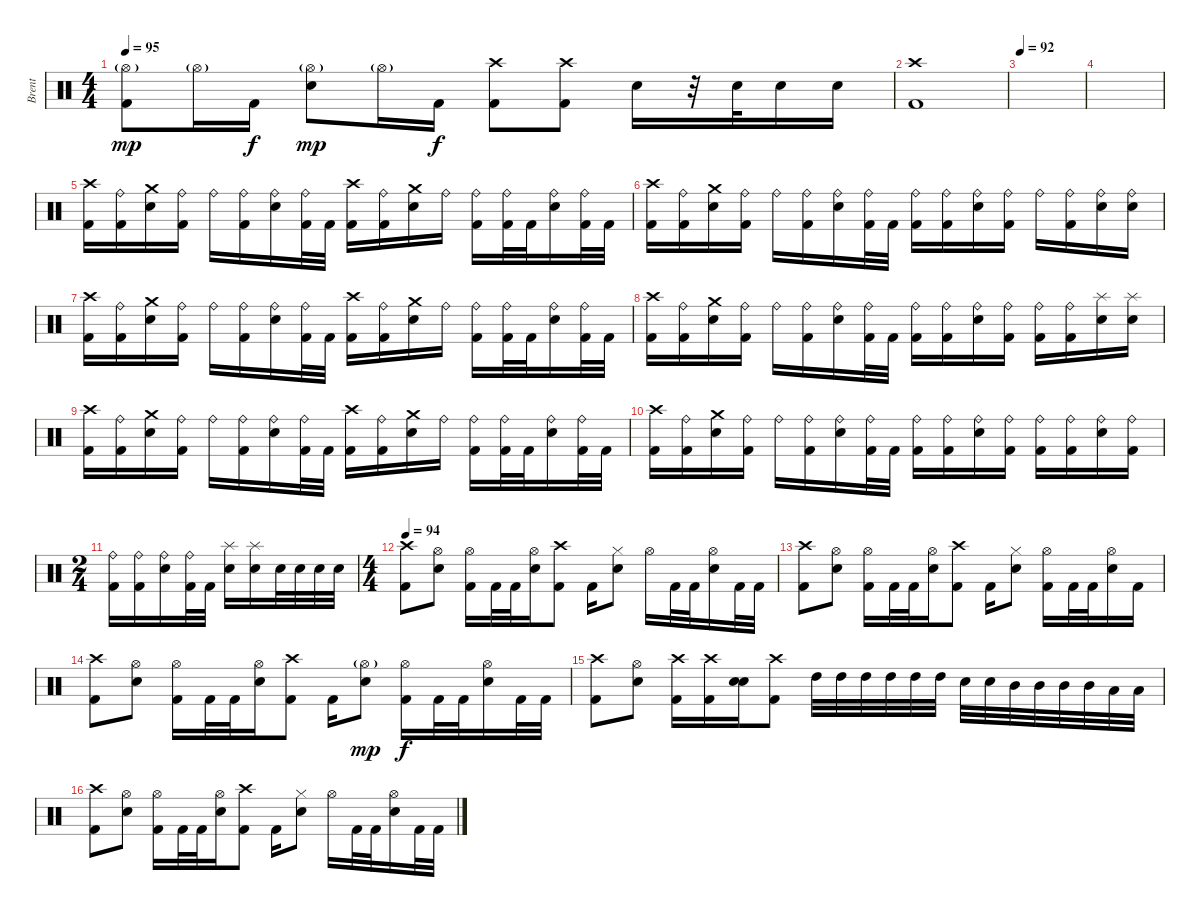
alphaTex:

\track ("Brent" "Brent") {instrument percussion}
\staff {score}
\articulation defaults
\ts (4 4)
\tempo 95
\clef neutral
\ks c
("Hi-Hat (open)"{g} "Kick (hit) 2").8{dy mp} "Hi-Hat (open)"{g}.16 "Kick (hit) 2".16{dy f} ("Hi-Hat (open)"{g} "Snare (hit) 2").8{dy mp} "Hi-Hat (open)"{g}.16 "Kick (hit) 2".16{dy f} ("Crash high (hit)" "Kick (hit) 2").8 ("Crash high (hit)" "Kick (hit) 2").8 "Snare (hit) 2".16 r.32 "Snare (hit) 2".32 "Snare (hit) 2".16 "Snare (hit) 2".16 |
("Crash high (hit)" "Kick (hit) 2").1 |
\tempo 92
|
|
("Crash high (hit)" "Kick (hit) 2").16 ("Ride (bell)" "Kick (hit) 2").16 ("Crash medium (hit)" "Snare (hit) 2").16 ("Ride (bell)" "Kick (hit) 2").16 "Ride (bell)".16 ("Ride (bell)" "Kick (hit) 2").16 ("Ride (bell)" "Snare (hit) 2").16 ("Ride (bell)" "Kick (hit) 2").32 "Kick (hit) 2".32 ("Crash high (hit)" "Kick (hit) 2").16 ("Ride (bell)" "Kick (hit) 2").16 ("Crash medium (hit)" "Snare (hit) 2").16 "Ride (bell)".16 ("Ride (bell)" "Kick (hit) 2").16 ("Ride (bell)" "Kick (hit) 2").32 "Kick (hit) 2".32 ("Ride (bell)" "Snare (hit) 2").16 ("Ride (bell)" "Kick (hit) 2").32 "Kick (hit) 2".32 |
("Crash high (hit)" "Kick (hit) 2").16 ("Ride (bell)" "Kick (hit) 2").16 ("Crash medium (hit)" "Snare (hit) 2").16 ("Ride (bell)" "Kick (hit) 2").16 "Ride (bell)".16 ("Ride (bell)" "Kick (hit) 2").16 ("Ride (bell)" "Snare (hit) 2").16 ("Ride (bell)" "Kick (hit) 2").32 "Kick (hit) 2".32 ("Ride (bell)" "Kick (hit) 2").16 ("Ride (bell)" "Kick (hit) 2").16 ("Ride (bell)" "Snare (hit) 2").16 ("Ride (bell)" "Kick (hit) 2").16 "Ride (bell)".16 ("Ride (bell)" "Kick (hit) 2").16 ("Ride (bell)" "Snare (hit) 2").16 ("Ride (bell)" "Snare (hit) 2").16 |
("Crash high (hit)" "Kick (hit) 2").16 ("Ride (bell)" "Kick (hit) 2").16 ("Crash medium (hit)" "Snare (hit) 2").16 ("Ride (bell)" "Kick (hit) 2").16 "Ride (bell)".16 ("Ride (bell)" "Kick (hit) 2").16 ("Ride (bell)" "Snare (hit) 2").16 ("Ride (bell)" "Kick (hit) 2").32 "Kick (hit) 2".32 ("Crash high (hit)" "Kick (hit) 2").16 ("Ride (bell)" "Kick (hit) 2").16 ("Crash medium (hit)" "Snare (hit) 2").16 "Ride (bell)".16 ("Ride (bell)" "Kick (hit) 2").16 ("Ride (bell)" "Kick (hit) 2").32 "Kick (hit) 2".32 ("Ride (bell)" "Snare (hit) 2").16 ("Ride (bell)" "Kick (hit) 2").32 "Kick (hit) 2".32 |
("Crash high (hit)" "Kick (hit) 2").16 ("Ride (bell)" "Kick (hit) 2").16 ("Crash medium (hit)" "Snare (hit) 2").16 ("Ride (bell)" "Kick (hit) 2").16 "Ride (bell)".16 ("Ride (bell)" "Kick (hit) 2").16 ("Ride (bell)" "Snare (hit) 2").16 ("Ride (bell)" "Kick (hit) 2").32 "Kick (hit) 2".32 ("Ride (bell)" "Kick (hit) 2").16 ("Ride (bell)" "Kick (hit) 2").16 ("Ride (bell)" "Snare (hit) 2").16 ("Ride (bell)" "Kick (hit) 2").16 ("Ride (bell)" "Kick (hit) 2").16 ("Ride (bell)" "Kick (hit) 2").16 ("Splash (hit)" "Snare (hit) 2").16 ("Splash (hit)" "Snare (hit) 2").16 |
("Crash high (hit)" "Kick (hit) 2").16 ("Ride (bell)" "Kick (hit) 2").16 ("Crash medium (hit)" "Snare (hit) 2").16 ("Ride (bell)" "Kick (hit) 2").16 "Ride (bell)".16 ("Ride (bell)" "Kick (hit) 2").16 ("Ride (bell)" "Snare (hit) 2").16 ("Ride (bell)" "Kick (hit) 2").32 "Kick (hit) 2".32 ("Crash high (hit)" "Kick (hit) 2").16 ("Ride (bell)" "Kick (hit) 2").16 ("Crash medium (hit)" "Snare (hit) 2").16 "Ride (bell)".16 ("Ride (bell)" "Kick (hit) 2").16 ("Ride (bell)" "Kick (hit) 2").32 "Kick (hit) 2".32 ("Ride (bell)" "Snare (hit) 2").16 ("Ride (bell)" "Kick (hit) 2").32 "Kick (hit) 2".32 |
("Crash high (hit)" "Kick (hit) 2").16 ("Ride (bell)" "Kick (hit) 2").16 ("Crash medium (hit)" "Snare (hit) 2").16 ("Ride (bell)" "Kick (hit) 2").16 "Ride (bell)".16 ("Ride (bell)" "Kick (hit) 2").16 ("Ride (bell)" "Snare (hit) 2").16 ("Ride (bell)" "Kick (hit) 2").32 "Kick (hit) 2".32 ("Ride (bell)" "Kick (hit) 2").16 ("Ride (bell)" "Kick (hit) 2").16 ("Ride (bell)" "Snare (hit) 2").16 ("Ride (bell)" "Kick (hit) 2").16 ("Ride (bell)" "Kick (hit) 2").16 ("Ride (bell)" "Kick (hit) 2").16 ("Ride (bell)" "Snare (hit) 2").16 ("Ride (bell)" "Kick (hit) 2").16 |
\ts (2 4)
("Ride (bell)" "Kick (hit) 2").16 ("Ride (bell)" "Kick (hit) 2").16 ("Ride (bell)" "Snare (hit) 2").16 ("Ride (bell)" "Kick (hit) 2").32 "Kick (hit) 2".32 ("Splash (hit)" "Snare (hit) 2").16 ("Splash (hit)" "Snare (hit) 2").16 "Snare (hit) 2".32 "Snare (hit) 2".32 "Snare (hit) 2".32 "Snare (hit) 2".32 |
\ts (4 4)
\tempo 94
("Crash high (hit)" "Kick (hit) 2").8 ("Hi-Hat (open)" "Snare (hit) 2").8 ("Hi-Hat (open)" "Kick (hit) 2").16 "Kick (hit) 2".32 "Kick (hit) 2".32 ("Hi-Hat (open)" "Snare (hit) 2").16 ("Crash high (hit)" "Kick (hit) 2").8 "Kick (hit) 2".16 ("Hi-Hat (closed)" "Snare (hit) 2").8 "Hi-Hat (open)".16 "Kick (hit) 2".32 "Kick (hit) 2".32 ("Hi-Hat (open)" "Snare (hit) 2").16 "Kick (hit) 2".32 "Kick (hit) 2".32 |
("Crash high (hit)" "Kick (hit) 2").8 ("Hi-Hat (open)" "Snare (hit) 2").8 ("Hi-Hat (open)" "Kick (hit) 2").16 "Kick (hit) 2".32 "Kick (hit) 2".32 ("Hi-Hat (open)" "Snare (hit) 2").16 ("Crash high (hit)" "Kick (hit) 2").8 "Kick (hit) 2".16 ("Hi-Hat (closed)" "Snare (hit) 2").8 ("Hi-Hat (open)" "Kick (hit) 2").16 "Kick (hit) 2".32 "Kick (hit) 2".32 ("Hi-Hat (open)" "Snare (hit) 2").16 "Kick (hit) 2".16 |
("Crash high (hit)" "Kick (hit) 2").8 ("Hi-Hat (open)" "Snare (hit) 2").8 ("Hi-Hat (open)" "Kick (hit) 2").16 "Kick (hit) 2".32 "Kick (hit) 2".32 ("Hi-Hat (open)" "Snare (hit) 2").16 ("Crash high (hit)" "Kick (hit) 2").8 "Kick (hit) 2".16 ("Hi-Hat (open)"{g} "Snare (hit) 2").8{dy mp} ("Hi-Hat (open)" "Kick (hit) 2").16{dy f} "Kick (hit) 2".32 "Kick (hit) 2".32 ("Hi-Hat (open)" "Snare (hit) 2").16 "Kick (hit) 2".32 "Kick (hit) 2".32 |
("Crash high (hit)" "Kick (hit) 2").8 ("Hi-Hat (open)" "Snare (hit) 2").8 ("Crash high (hit)" "Kick (hit) 2").16 ("Crash high (hit)" "Kick (hit) 2").16 ("Snare (hit) 2" "Snare (hit) 2").16 ("Crash high (hit)" "Kick (hit) 2").8 "High Tom (hit)".32 "High Tom (hit)".32 "High Tom (hit)".32 "High Tom (hit)".32 "High Tom (hit)".32 "High Tom (hit)".32 "Snare (hit) 2".32 "Snare (hit) 2".32 "Mid Tom (hit)".32 "Mid Tom (hit)".32 "Mid Tom (hit)".32 "Mid Tom (hit)".32 "Low Tom (hit)".32 "Low Tom (hit)".32 |
("Crash high (hit)" "Kick (hit) 2").8 ("Hi-Hat (open)" "Snare (hit) 2").8 ("Hi-Hat (open)" "Kick (hit) 2").16 "Kick (hit) 2".32 "Kick (hit) 2".32 ("Hi-Hat (open)" "Snare (hit) 2").16 ("Crash high (hit)" "Kick (hit) 2").8 "Kick (hit) 2".16 ("Hi-Hat (closed)" "Snare (hit) 2").8 "Hi-Hat (open)".16 "Kick (hit) 2".32 "Kick (hit) 2".32 ("Hi-Hat (open)" "Snare (hit) 2").16 "Kick (hit) 2".32 "Kick (hit) 2".32
